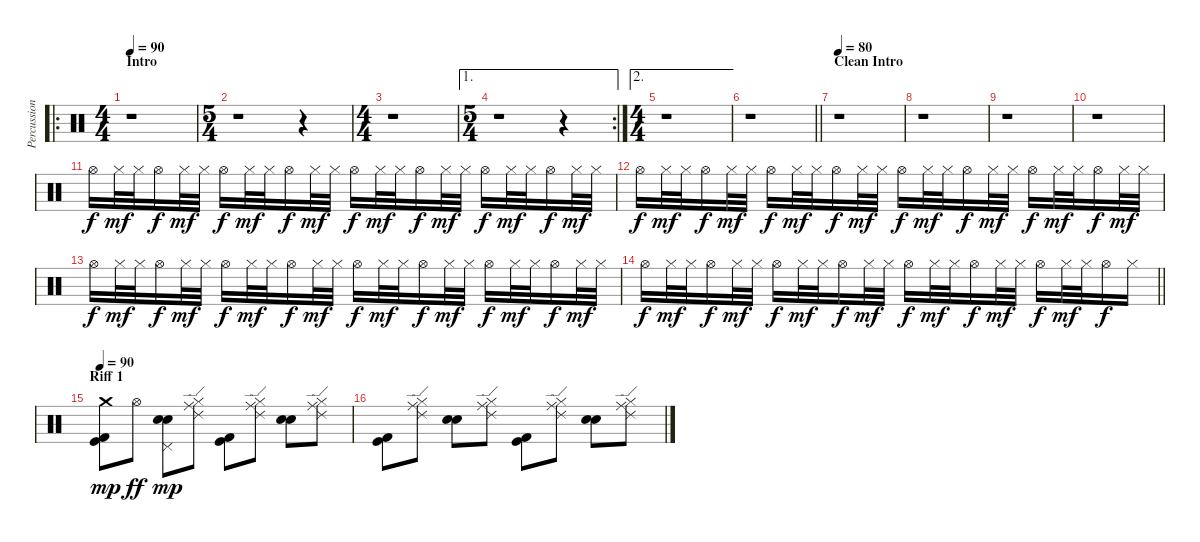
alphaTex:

\track ("Percussion" "Percussion") {instrument percussion}
\staff {score}
\articulation defaults
\ro
\ts (4 4)
\section ("" "Intro")
\tempo 90
\clef neutral
\ks c
r.1{dy f} |
\ts (5 4)
r.1 r.4 |
\ts (4 4)
r.1 |
\ae 1
\rc 2
\ts (5 4)
r.1 r.4 |
\ae 2
\ts (4 4)
r.1 |
\barLineRight lightlight
r.1 |
\section ("" "Clean Intro")
\tempo 80
r.1{volume 10} |
r.1 |
r.1 |
r.1 |
"Hi-Hat (open)".16 "Hi-Hat (closed)".32{dy mf} "Hi-Hat (closed)".32 "Hi-Hat (open)".16{dy f} "Hi-Hat (closed)".32{dy mf} "Hi-Hat (closed)".32 "Hi-Hat (open)".16{dy f} "Hi-Hat (closed)".32{dy mf} "Hi-Hat (closed)".32 "Hi-Hat (open)".16{dy f} "Hi-Hat (closed)".32{dy mf} "Hi-Hat (closed)".32 "Hi-Hat (open)".16{dy f} "Hi-Hat (closed)".32{dy mf} "Hi-Hat (closed)".32 "Hi-Hat (open)".16{dy f} "Hi-Hat (closed)".32{dy mf} "Hi-Hat (closed)".32 "Hi-Hat (open)".16{dy f} "Hi-Hat (closed)".32{dy mf} "Hi-Hat (closed)".32 "Hi-Hat (open)".16{dy f} "Hi-Hat (closed)".32{dy mf} "Hi-Hat (closed)".32 |
"Hi-Hat (open)".16{dy f} "Hi-Hat (closed)".32{dy mf} "Hi-Hat (closed)".32 "Hi-Hat (open)".16{dy f} "Hi-Hat (closed)".32{dy mf} "Hi-Hat (closed)".32 "Hi-Hat (open)".16{dy f} "Hi-Hat (closed)".32{dy mf} "Hi-Hat (closed)".32 "Hi-Hat (open)".16{dy f} "Hi-Hat (closed)".32{dy mf} "Hi-Hat (closed)".32 "Hi-Hat (open)".16{dy f} "Hi-Hat (closed)".32{dy mf} "Hi-Hat (closed)".32 "Hi-Hat (open)".16{dy f} "Hi-Hat (closed)".32{dy mf} "Hi-Hat (closed)".32 "Hi-Hat (open)".16{dy f} "Hi-Hat (closed)".32{dy mf} "Hi-Hat (closed)".32 "Hi-Hat (open)".16{dy f} "Hi-Hat (closed)".32{dy mf} "Hi-Hat (closed)".32 |
"Hi-Hat (open)".16{dy f} "Hi-Hat (closed)".32{dy mf} "Hi-Hat (closed)".32 "Hi-Hat (open)".16{dy f} "Hi-Hat (closed)".32{dy mf} "Hi-Hat (closed)".32 "Hi-Hat (open)".16{dy f} "Hi-Hat (closed)".32{dy mf} "Hi-Hat (closed)".32 "Hi-Hat (open)".16{dy f} "Hi-Hat (closed)".32{dy mf} "Hi-Hat (closed)".32 "Hi-Hat (open)".16{dy f} "Hi-Hat (closed)".32{dy mf} "Hi-Hat (closed)".32 "Hi-Hat (open)".16{dy f} "Hi-Hat (closed)".32{dy mf} "Hi-Hat (closed)".32 "Hi-Hat (open)".16{dy f} "Hi-Hat (closed)".32{dy mf} "Hi-Hat (closed)".32 "Hi-Hat (open)".16{dy f} "Hi-Hat (closed)".32{dy mf} "Hi-Hat (closed)".32 |
\barLineRight lightlight "Hi-Hat (open)".16{dy f} "Hi-Hat (closed)".32{dy mf} "Hi-Hat (closed)".32 "Hi-Hat (open)".16{dy f} "Hi-Hat (closed)".32{dy mf} "Hi-Hat (closed)".32 "Hi-Hat (open)".16{dy f} "Hi-Hat (closed)".32{dy mf} "Hi-Hat (closed)".32 "Hi-Hat (open)".16{dy f} "Hi-Hat (closed)".32{dy mf} "Hi-Hat (closed)".32 "Hi-Hat (open)".16{dy f} "Hi-Hat (closed)".32{dy mf} "Hi-Hat (closed)".32 "Hi-Hat (open)".16{dy f} "Hi-Hat (closed)".32{dy mf} "Hi-Hat (closed)".32 "Hi-Hat (open)".16{dy f} "Hi-Hat (closed)".32{dy mf} "Hi-Hat (closed)".32 "Hi-Hat (open)".16{dy f} "Hi-Hat (closed)".16
|
\section ("" "Riff 1")
\tempo 90
("Crash medium (hit)" "Kick (hit)" "Kick (hit) 2").8{dy mp volume 16} "Hi-Hat (open)".8{dy ff} ("Pedal Hi-Hat (hit)" "Snare (hit) 2" "Electric Snare (hit)").8{dy mp} ("Ride (edge) 2" "Ride (middle)" "Hi-Hat (closed)").8 ("Kick (hit)" "Kick (hit) 2").8 ("Ride (edge) 2" "Ride (middle)" "Hi-Hat (closed)").8 ("Snare (hit) 2" "Electric Snare (hit)").8 ("Ride (edge) 2" "Ride (middle)" "Hi-Hat (closed)").8 |
("Kick (hit)" "Kick (hit) 2").8 ("Ride (edge) 2" "Ride (middle)" "Hi-Hat (closed)").8 ("Snare (hit) 2" "Electric Snare (hit)").8 ("Ride (edge) 2" "Ride (middle)" "Hi-Hat (closed)").8 ("Kick (hit)" "Kick (hit) 2").8 ("Ride (edge) 2" "Ride (middle)" "Hi-Hat (closed)").8 ("Snare (hit) 2" "Electric Snare (hit)").8 ("Ride (edge) 2" "Ride (middle)" "Hi-Hat (closed)").8
